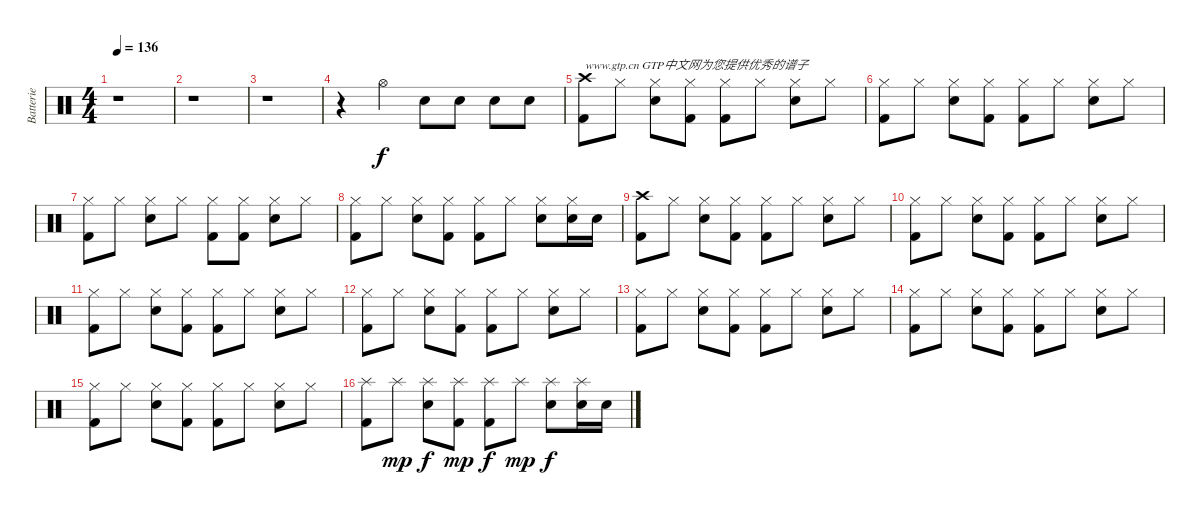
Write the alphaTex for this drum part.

\track ("Batterie" "Batterie") {instrument percussion}
\staff {score}
\articulation defaults
\ts (4 4)
\tempo 136
\clef neutral
\ks c
r.1{dy f} |
r.1 |
r.1 |
r.4 "Hi-Hat (open)".4 "Electric Snare (hit)".8 "Electric Snare (hit)".8 "Electric Snare (hit)".8 "Electric Snare (hit)".8 |
("Crash high (hit)" "Kick (hit) 2").8{txt "www.gtp.cn GTP中文网为您提供优秀的谱子"} "Hi-Hat (closed)".8 ("Hi-Hat (closed)" "Electric Snare (hit)").8 ("Hi-Hat (closed)" "Kick (hit) 2").8 ("Hi-Hat (closed)" "Kick (hit) 2").8 "Hi-Hat (closed)".8 ("Hi-Hat (closed)" "Electric Snare (hit)").8 "Hi-Hat (closed)".8 |
("Hi-Hat (closed)" "Kick (hit) 2").8 "Hi-Hat (closed)".8 ("Hi-Hat (closed)" "Electric Snare (hit)").8 ("Hi-Hat (closed)" "Kick (hit) 2").8 ("Hi-Hat (closed)" "Kick (hit) 2").8 "Hi-Hat (closed)".8 ("Hi-Hat (closed)" "Electric Snare (hit)").8 "Hi-Hat (closed)".8 |
("Hi-Hat (closed)" "Kick (hit) 2").8 "Hi-Hat (closed)".8 ("Hi-Hat (closed)" "Electric Snare (hit)").8 "Hi-Hat (closed)".8 ("Hi-Hat (closed)" "Kick (hit) 2").8 ("Hi-Hat (closed)" "Kick (hit) 2").8 ("Hi-Hat (closed)" "Electric Snare (hit)").8 "Hi-Hat (closed)".8 |
("Hi-Hat (closed)" "Kick (hit) 2").8 "Hi-Hat (closed)".8 ("Hi-Hat (closed)" "Electric Snare (hit)").8 ("Hi-Hat (closed)" "Kick (hit) 2").8 ("Hi-Hat (closed)" "Kick (hit) 2").8 "Hi-Hat (closed)".8 ("Hi-Hat (closed)" "Electric Snare (hit)").8 ("Hi-Hat (closed)" "Electric Snare (hit)").16 "Electric Snare (hit)".16 |
("Crash high (hit)" "Kick (hit) 2").8 "Hi-Hat (closed)".8 ("Hi-Hat (closed)" "Electric Snare (hit)").8 ("Hi-Hat (closed)" "Kick (hit) 2").8 ("Hi-Hat (closed)" "Kick (hit) 2").8 "Hi-Hat (closed)".8 ("Hi-Hat (closed)" "Electric Snare (hit)").8 "Hi-Hat (closed)".8 |
("Hi-Hat (closed)" "Kick (hit) 2").8 "Hi-Hat (closed)".8 ("Hi-Hat (closed)" "Electric Snare (hit)").8 ("Hi-Hat (closed)" "Kick (hit) 2").8 ("Hi-Hat (closed)" "Kick (hit) 2").8 "Hi-Hat (closed)".8 ("Hi-Hat (closed)" "Electric Snare (hit)").8 "Hi-Hat (closed)".8 |
("Hi-Hat (closed)" "Kick (hit) 2").8 "Hi-Hat (closed)".8 ("Hi-Hat (closed)" "Electric Snare (hit)").8 ("Hi-Hat (closed)" "Kick (hit) 2").8 ("Hi-Hat (closed)" "Kick (hit) 2").8 "Hi-Hat (closed)".8 ("Hi-Hat (closed)" "Electric Snare (hit)").8 "Hi-Hat (closed)".8 |
("Hi-Hat (closed)" "Kick (hit) 2").8 "Hi-Hat (closed)".8 ("Hi-Hat (closed)" "Electric Snare (hit)").8 ("Hi-Hat (closed)" "Kick (hit) 2").8 ("Hi-Hat (closed)" "Kick (hit) 2").8 "Hi-Hat (closed)".8 ("Hi-Hat (closed)" "Electric Snare (hit)").8 "Hi-Hat (closed)".8 |
("Hi-Hat (closed)" "Kick (hit) 2").8 "Hi-Hat (closed)".8 ("Hi-Hat (closed)" "Electric Snare (hit)").8 ("Hi-Hat (closed)" "Kick (hit) 2").8 ("Hi-Hat (closed)" "Kick (hit) 2").8 "Hi-Hat (closed)".8 ("Hi-Hat (closed)" "Electric Snare (hit)").8 "Hi-Hat (closed)".8 |
("Hi-Hat (closed)" "Kick (hit) 2").8 "Hi-Hat (closed)".8 ("Hi-Hat (closed)" "Electric Snare (hit)").8 ("Hi-Hat (closed)" "Kick (hit) 2").8 ("Hi-Hat (closed)" "Kick (hit) 2").8 "Hi-Hat (closed)".8 ("Hi-Hat (closed)" "Electric Snare (hit)").8 "Hi-Hat (closed)".8 |
("Hi-Hat (closed)" "Kick (hit) 2").8 "Hi-Hat (closed)".8 ("Hi-Hat (closed)" "Electric Snare (hit)").8 ("Hi-Hat (closed)" "Kick (hit) 2").8 ("Hi-Hat (closed)" "Kick (hit) 2").8 "Hi-Hat (closed)".8 ("Hi-Hat (closed)" "Electric Snare (hit)").8 "Hi-Hat (closed)".8 |
("Splash (hit)" "Kick (hit) 2").8 "Splash (hit)".8{dy mp} ("Splash (hit)" "Electric Snare (hit)").8{dy f} ("Splash (hit)" "Kick (hit) 2").8{dy mp} ("Splash (hit)" "Kick (hit) 2").8{dy f} "Splash (hit)".8{dy mp} ("Splash (hit)" "Electric Snare (hit)").8{dy f} ("Splash (hit)" "Electric Snare (hit)").16 "Electric Snare (hit)".16
